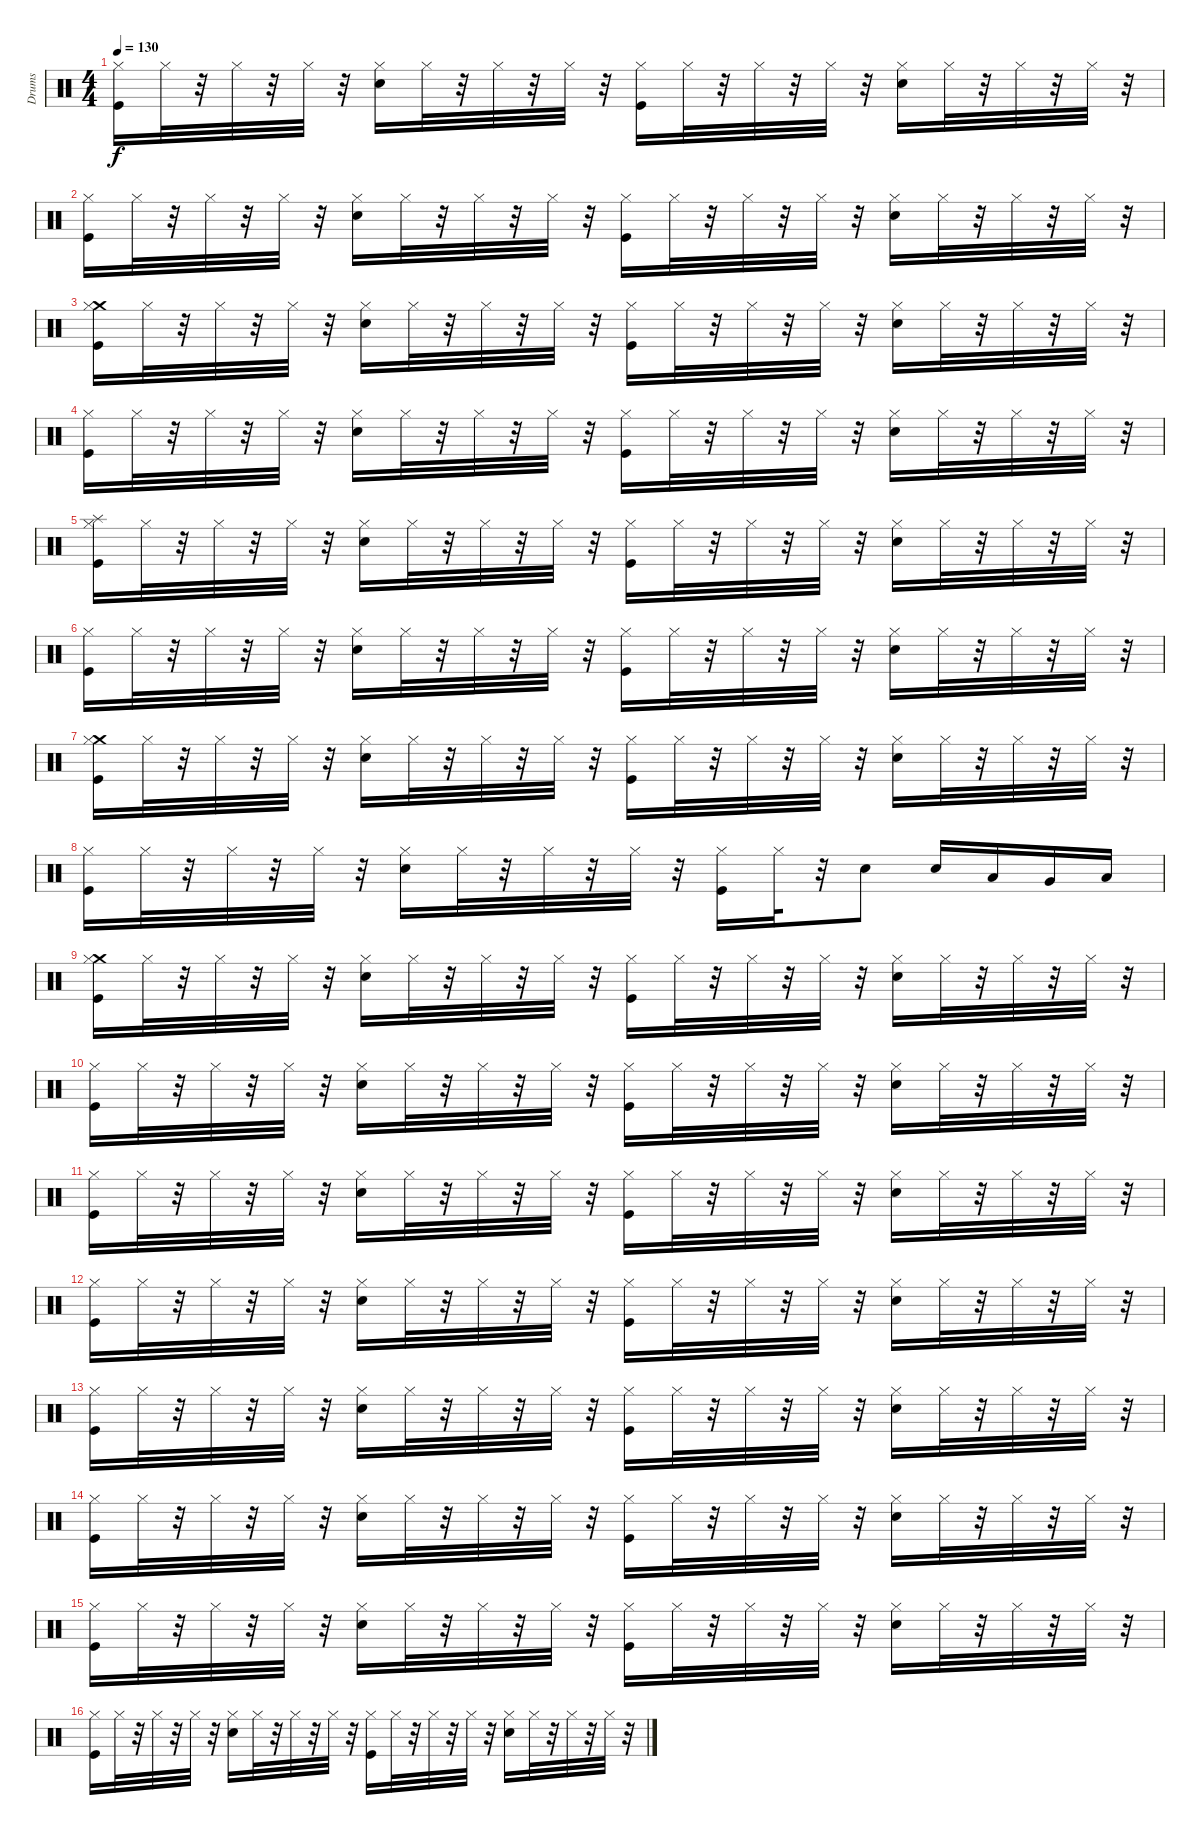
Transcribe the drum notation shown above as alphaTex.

\track ("Drums" "Drums") {instrument percussion}
\staff {score}
\articulation defaults
\ts (4 4)
\tempo 130
\clef neutral
\ks c
("Hi-Hat (closed)" "Kick (hit)").16{dy f} "Hi-Hat (closed)".32 r.32 "Hi-Hat (closed)".32 r.32 "Hi-Hat (closed)".32 r.32 ("Hi-Hat (closed)" "Snare (hit) 2").16 "Hi-Hat (closed)".32 r.32 "Hi-Hat (closed)".32 r.32 "Hi-Hat (closed)".32 r.32 ("Hi-Hat (closed)" "Kick (hit)").16 "Hi-Hat (closed)".32 r.32 "Hi-Hat (closed)".32 r.32 "Hi-Hat (closed)".32 r.32 ("Hi-Hat (closed)" "Snare (hit) 2").16 "Hi-Hat (closed)".32 r.32 "Hi-Hat (closed)".32 r.32 "Hi-Hat (closed)".32 r.32 |
("Hi-Hat (closed)" "Kick (hit)").16 "Hi-Hat (closed)".32 r.32 "Hi-Hat (closed)".32 r.32 "Hi-Hat (closed)".32 r.32 ("Hi-Hat (closed)" "Snare (hit) 2").16 "Hi-Hat (closed)".32 r.32 "Hi-Hat (closed)".32 r.32 "Hi-Hat (closed)".32 r.32 ("Hi-Hat (closed)" "Kick (hit)").16 "Hi-Hat (closed)".32 r.32 "Hi-Hat (closed)".32 r.32 "Hi-Hat (closed)".32 r.32 ("Hi-Hat (closed)" "Snare (hit) 2").16 "Hi-Hat (closed)".32 r.32 "Hi-Hat (closed)".32 r.32 "Hi-Hat (closed)".32 r.32 |
("Crash medium (hit)" "Hi-Hat (closed)" "Kick (hit)").16 "Hi-Hat (closed)".32 r.32 "Hi-Hat (closed)".32 r.32 "Hi-Hat (closed)".32 r.32 ("Hi-Hat (closed)" "Snare (hit) 2").16 "Hi-Hat (closed)".32 r.32 "Hi-Hat (closed)".32 r.32 "Hi-Hat (closed)".32 r.32 ("Hi-Hat (closed)" "Kick (hit)").16 "Hi-Hat (closed)".32 r.32 "Hi-Hat (closed)".32 r.32 "Hi-Hat (closed)".32 r.32 ("Hi-Hat (closed)" "Snare (hit) 2").16 "Hi-Hat (closed)".32 r.32 "Hi-Hat (closed)".32 r.32 "Hi-Hat (closed)".32 r.32 |
("Hi-Hat (closed)" "Kick (hit)").16 "Hi-Hat (closed)".32 r.32 "Hi-Hat (closed)".32 r.32 "Hi-Hat (closed)".32 r.32 ("Hi-Hat (closed)" "Snare (hit) 2").16 "Hi-Hat (closed)".32 r.32 "Hi-Hat (closed)".32 r.32 "Hi-Hat (closed)".32 r.32 ("Hi-Hat (closed)" "Kick (hit)").16 "Hi-Hat (closed)".32 r.32 "Hi-Hat (closed)".32 r.32 "Hi-Hat (closed)".32 r.32 ("Hi-Hat (closed)" "Snare (hit) 2").16 "Hi-Hat (closed)".32 r.32 "Hi-Hat (closed)".32 r.32 "Hi-Hat (closed)".32 r.32 |
("Splash (hit)" "Hi-Hat (closed)" "Kick (hit)").16 "Hi-Hat (closed)".32 r.32 "Hi-Hat (closed)".32 r.32 "Hi-Hat (closed)".32 r.32 ("Hi-Hat (closed)" "Snare (hit) 2").16 "Hi-Hat (closed)".32 r.32 "Hi-Hat (closed)".32 r.32 "Hi-Hat (closed)".32 r.32 ("Hi-Hat (closed)" "Kick (hit)").16 "Hi-Hat (closed)".32 r.32 "Hi-Hat (closed)".32 r.32 "Hi-Hat (closed)".32 r.32 ("Hi-Hat (closed)" "Snare (hit) 2").16 "Hi-Hat (closed)".32 r.32 "Hi-Hat (closed)".32 r.32 "Hi-Hat (closed)".32 r.32 |
("Hi-Hat (closed)" "Kick (hit)").16 "Hi-Hat (closed)".32 r.32 "Hi-Hat (closed)".32 r.32 "Hi-Hat (closed)".32 r.32 ("Hi-Hat (closed)" "Snare (hit) 2").16 "Hi-Hat (closed)".32 r.32 "Hi-Hat (closed)".32 r.32 "Hi-Hat (closed)".32 r.32 ("Hi-Hat (closed)" "Kick (hit)").16 "Hi-Hat (closed)".32 r.32 "Hi-Hat (closed)".32 r.32 "Hi-Hat (closed)".32 r.32 ("Hi-Hat (closed)" "Snare (hit) 2").16 "Hi-Hat (closed)".32 r.32 "Hi-Hat (closed)".32 r.32 "Hi-Hat (closed)".32 r.32 |
("Crash medium (hit)" "Hi-Hat (closed)" "Kick (hit)").16 "Hi-Hat (closed)".32 r.32 "Hi-Hat (closed)".32 r.32 "Hi-Hat (closed)".32 r.32 ("Hi-Hat (closed)" "Snare (hit) 2").16 "Hi-Hat (closed)".32 r.32 "Hi-Hat (closed)".32 r.32 "Hi-Hat (closed)".32 r.32 ("Hi-Hat (closed)" "Kick (hit)").16 "Hi-Hat (closed)".32 r.32 "Hi-Hat (closed)".32 r.32 "Hi-Hat (closed)".32 r.32 ("Hi-Hat (closed)" "Snare (hit) 2").16 "Hi-Hat (closed)".32 r.32 "Hi-Hat (closed)".32 r.32 "Hi-Hat (closed)".32 r.32 |
("Kick (hit)" "Hi-Hat (closed)").16 "Hi-Hat (closed)".32 r.32 "Hi-Hat (closed)".32 r.32 "Hi-Hat (closed)".32 r.32 ("Snare (hit) 2" "Hi-Hat (closed)").16 "Hi-Hat (closed)".32 r.32 "Hi-Hat (closed)".32 r.32 "Hi-Hat (closed)".32 r.32 ("Kick (hit)" "Hi-Hat (closed)").16 "Hi-Hat (closed)".32 r.32 "Snare (hit) 2".8 "Snare (hit) 2".16 "Low Tom (hit)".16 "Very Low Tom (hit)".16 "Low Floor Tom (hit)".16 |
("Crash medium (hit)" "Hi-Hat (closed)" "Kick (hit)").16 "Hi-Hat (closed)".32 r.32 "Hi-Hat (closed)".32 r.32 "Hi-Hat (closed)".32 r.32 ("Hi-Hat (closed)" "Snare (hit) 2").16 "Hi-Hat (closed)".32 r.32 "Hi-Hat (closed)".32 r.32 "Hi-Hat (closed)".32 r.32 ("Hi-Hat (closed)" "Kick (hit)").16 "Hi-Hat (closed)".32 r.32 "Hi-Hat (closed)".32 r.32 "Hi-Hat (closed)".32 r.32 ("Hi-Hat (closed)" "Snare (hit) 2").16 "Hi-Hat (closed)".32 r.32 "Hi-Hat (closed)".32 r.32 "Hi-Hat (closed)".32 r.32 |
("Hi-Hat (closed)" "Kick (hit)").16 "Hi-Hat (closed)".32 r.32 "Hi-Hat (closed)".32 r.32 "Hi-Hat (closed)".32 r.32 ("Hi-Hat (closed)" "Snare (hit) 2").16 "Hi-Hat (closed)".32 r.32 "Hi-Hat (closed)".32 r.32 "Hi-Hat (closed)".32 r.32 ("Hi-Hat (closed)" "Kick (hit)").16 "Hi-Hat (closed)".32 r.32 "Hi-Hat (closed)".32 r.32 "Hi-Hat (closed)".32 r.32 ("Hi-Hat (closed)" "Snare (hit) 2").16 "Hi-Hat (closed)".32 r.32 "Hi-Hat (closed)".32 r.32 "Hi-Hat (closed)".32 r.32 |
("Hi-Hat (closed)" "Kick (hit)").16 "Hi-Hat (closed)".32 r.32 "Hi-Hat (closed)".32 r.32 "Hi-Hat (closed)".32 r.32 ("Hi-Hat (closed)" "Snare (hit) 2").16 "Hi-Hat (closed)".32 r.32 "Hi-Hat (closed)".32 r.32 "Hi-Hat (closed)".32 r.32 ("Hi-Hat (closed)" "Kick (hit)").16 "Hi-Hat (closed)".32 r.32 "Hi-Hat (closed)".32 r.32 "Hi-Hat (closed)".32 r.32 ("Hi-Hat (closed)" "Snare (hit) 2").16 "Hi-Hat (closed)".32 r.32 "Hi-Hat (closed)".32 r.32 "Hi-Hat (closed)".32 r.32 |
("Hi-Hat (closed)" "Kick (hit)").16 "Hi-Hat (closed)".32 r.32 "Hi-Hat (closed)".32 r.32 "Hi-Hat (closed)".32 r.32 ("Hi-Hat (closed)" "Snare (hit) 2").16 "Hi-Hat (closed)".32 r.32 "Hi-Hat (closed)".32 r.32 "Hi-Hat (closed)".32 r.32 ("Hi-Hat (closed)" "Kick (hit)").16 "Hi-Hat (closed)".32 r.32 "Hi-Hat (closed)".32 r.32 "Hi-Hat (closed)".32 r.32 ("Hi-Hat (closed)" "Snare (hit) 2").16 "Hi-Hat (closed)".32 r.32 "Hi-Hat (closed)".32 r.32 "Hi-Hat (closed)".32 r.32 |
("Hi-Hat (closed)" "Kick (hit)").16 "Hi-Hat (closed)".32 r.32 "Hi-Hat (closed)".32 r.32 "Hi-Hat (closed)".32 r.32 ("Hi-Hat (closed)" "Snare (hit) 2").16 "Hi-Hat (closed)".32 r.32 "Hi-Hat (closed)".32 r.32 "Hi-Hat (closed)".32 r.32 ("Hi-Hat (closed)" "Kick (hit)").16 "Hi-Hat (closed)".32 r.32 "Hi-Hat (closed)".32 r.32 "Hi-Hat (closed)".32 r.32 ("Hi-Hat (closed)" "Snare (hit) 2").16 "Hi-Hat (closed)".32 r.32 "Hi-Hat (closed)".32 r.32 "Hi-Hat (closed)".32 r.32 |
("Hi-Hat (closed)" "Kick (hit)").16 "Hi-Hat (closed)".32 r.32 "Hi-Hat (closed)".32 r.32 "Hi-Hat (closed)".32 r.32 ("Hi-Hat (closed)" "Snare (hit) 2").16 "Hi-Hat (closed)".32 r.32 "Hi-Hat (closed)".32 r.32 "Hi-Hat (closed)".32 r.32 ("Hi-Hat (closed)" "Kick (hit)").16 "Hi-Hat (closed)".32 r.32 "Hi-Hat (closed)".32 r.32 "Hi-Hat (closed)".32 r.32 ("Hi-Hat (closed)" "Snare (hit) 2").16 "Hi-Hat (closed)".32 r.32 "Hi-Hat (closed)".32 r.32 "Hi-Hat (closed)".32 r.32 |
("Hi-Hat (closed)" "Kick (hit)").16 "Hi-Hat (closed)".32 r.32 "Hi-Hat (closed)".32 r.32 "Hi-Hat (closed)".32 r.32 ("Hi-Hat (closed)" "Snare (hit) 2").16 "Hi-Hat (closed)".32 r.32 "Hi-Hat (closed)".32 r.32 "Hi-Hat (closed)".32 r.32 ("Hi-Hat (closed)" "Kick (hit)").16 "Hi-Hat (closed)".32 r.32 "Hi-Hat (closed)".32 r.32 "Hi-Hat (closed)".32 r.32 ("Hi-Hat (closed)" "Snare (hit) 2").16 "Hi-Hat (closed)".32 r.32 "Hi-Hat (closed)".32 r.32 "Hi-Hat (closed)".32 r.32 |
("Hi-Hat (closed)" "Kick (hit)").16 "Hi-Hat (closed)".32 r.32 "Hi-Hat (closed)".32 r.32 "Hi-Hat (closed)".32 r.32 ("Hi-Hat (closed)" "Snare (hit) 2").16 "Hi-Hat (closed)".32 r.32 "Hi-Hat (closed)".32 r.32 "Hi-Hat (closed)".32 r.32 ("Hi-Hat (closed)" "Kick (hit)").16 "Hi-Hat (closed)".32 r.32 "Hi-Hat (closed)".32 r.32 "Hi-Hat (closed)".32 r.32 ("Hi-Hat (closed)" "Snare (hit) 2").16 "Hi-Hat (closed)".32 r.32 "Hi-Hat (closed)".32 r.32 "Hi-Hat (closed)".32 r.32
